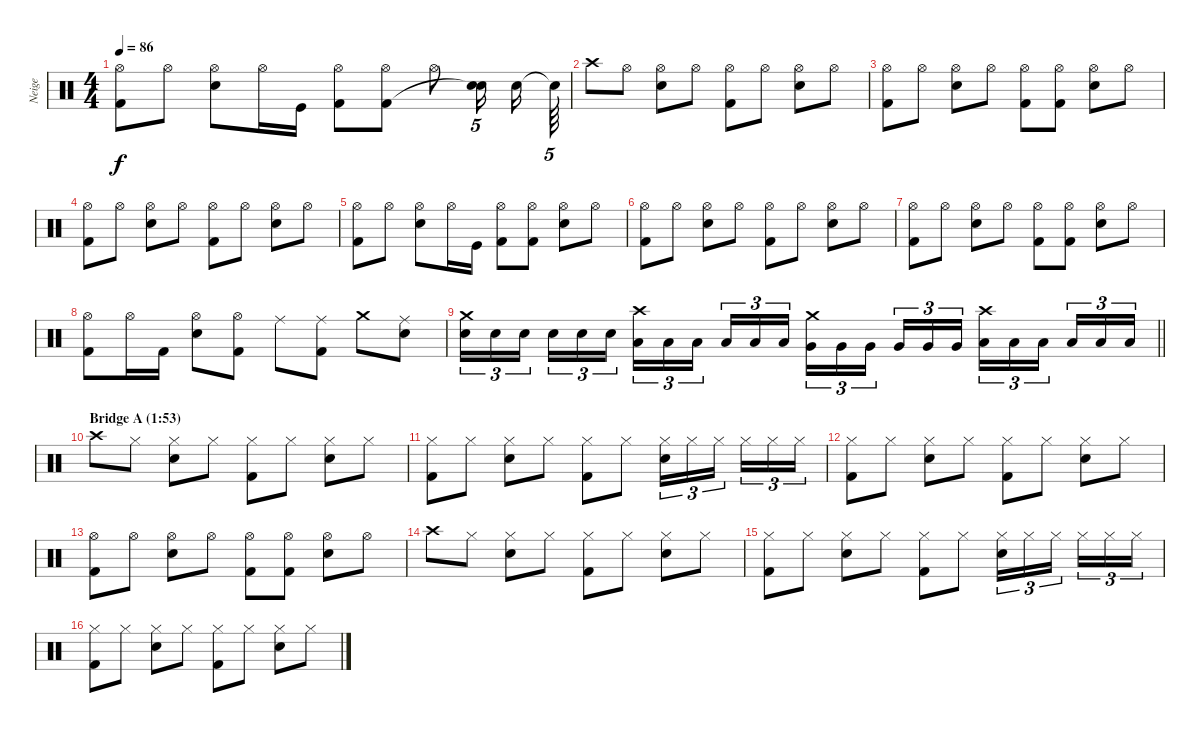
\track ("Neige" "Neige") {instrument percussion}
\staff {score}
\articulation defaults
\ts (4 4)
\tempo 86
\clef neutral
\ks c
("Hi-Hat (open)" "Kick (hit) 2").8{dy f} "Hi-Hat (open)".8 ("Snare (hit) 2" "Hi-Hat (open)").8 "Hi-Hat (open)".16 "Kick (hit)".16 ("Hi-Hat (open)" "Kick (hit) 2").8 ("Hi-Hat (open)" "Kick (hit) 2").8 "Hi-Hat (open)".8 ("Snare (hit) 2" "Snare (hit)"{t}).16{tu (5 4) beam splitsecondary} "Snare (hit) 2".16 "Snare (hit)"{t}.64{tu (5 4)} |
"Crash high (hit)".8 "Hi-Hat (open)".8 ("Snare (hit) 2" "Hi-Hat (open)").8 "Hi-Hat (open)".8 ("Hi-Hat (open)" "Kick (hit) 2").8 "Hi-Hat (open)".8 ("Snare (hit) 2" "Hi-Hat (open)").8 "Hi-Hat (open)".8 |
("Hi-Hat (open)" "Kick (hit) 2").8 "Hi-Hat (open)".8 ("Snare (hit) 2" "Hi-Hat (open)").8 "Hi-Hat (open)".8 ("Hi-Hat (open)" "Kick (hit) 2").8 ("Hi-Hat (open)" "Kick (hit) 2").8 ("Snare (hit) 2" "Hi-Hat (open)").8 "Hi-Hat (open)".8 |
("Hi-Hat (open)" "Kick (hit) 2").8 "Hi-Hat (open)".8 ("Snare (hit) 2" "Hi-Hat (open)").8 "Hi-Hat (open)".8 ("Hi-Hat (open)" "Kick (hit) 2").8 "Hi-Hat (open)".8 ("Snare (hit) 2" "Hi-Hat (open)").8 "Hi-Hat (open)".8 |
("Hi-Hat (open)" "Kick (hit) 2").8 "Hi-Hat (open)".8 ("Snare (hit) 2" "Hi-Hat (open)").8 "Hi-Hat (open)".16 "Kick (hit)".16 ("Hi-Hat (open)" "Kick (hit) 2").8 ("Hi-Hat (open)" "Kick (hit) 2").8 ("Snare (hit) 2" "Hi-Hat (open)").8 "Hi-Hat (open)".8 |
("Hi-Hat (open)" "Kick (hit) 2").8 "Hi-Hat (open)".8 ("Snare (hit) 2" "Hi-Hat (open)").8 "Hi-Hat (open)".8 ("Hi-Hat (open)" "Kick (hit) 2").8 "Hi-Hat (open)".8 ("Snare (hit) 2" "Hi-Hat (open)").8 "Hi-Hat (open)".8 |
("Hi-Hat (open)" "Kick (hit) 2").8 "Hi-Hat (open)".8 ("Snare (hit) 2" "Hi-Hat (open)").8 "Hi-Hat (open)".8 ("Hi-Hat (open)" "Kick (hit) 2").8 ("Hi-Hat (open)" "Kick (hit) 2").8 ("Snare (hit) 2" "Hi-Hat (open)").8 "Hi-Hat (open)".8 |
("Hi-Hat (open)" "Kick (hit) 2").8 "Hi-Hat (open)".16 "Kick (hit) 2".16 ("Snare (hit) 2" "Hi-Hat (open)").8 ("Hi-Hat (open)" "Kick (hit) 2").8 "Ride (middle)".8 ("Ride (middle)" "Kick (hit) 2").8 "Crash medium (hit)".8 ("Snare (hit) 2" "Ride (middle)").8 |
\barLineRight lightlight
("Snare (hit) 2" "Crash medium (hit)").16{tu (3 2)} "Snare (hit) 2".16{tu (3 2)} "Snare (hit) 2".16{tu (3 2) beam splitsecondary} "Snare (hit) 2".16{tu (3 2)} "Snare (hit) 2".16{tu (3 2)} "Snare (hit) 2".16{tu (3 2)} ("Low Tom (hit)" "Crash high (hit)").16{tu (3 2)} "Low Tom (hit)".16{tu (3 2)} "Low Tom (hit)".16{tu (3 2) beam splitsecondary} "Low Tom (hit)".16{tu (3 2)} "Low Tom (hit)".16{tu (3 2)} "Low Tom (hit)".16{tu (3 2)} ("Very Low Tom (hit)" "Crash medium (hit)").16{tu (3 2)} "Very Low Tom (hit)".16{tu (3 2)} "Very Low Tom (hit)".16{tu (3 2) beam splitsecondary} "Very Low Tom (hit)".16{tu (3 2)} "Very Low Tom (hit)".16{tu (3 2)} "Very Low Tom (hit)".16{tu (3 2)} ("Low Floor Tom (hit)" "Crash high (hit)").16{tu (3 2)} "Low Floor Tom (hit)".16{tu (3 2)} "Low Floor Tom (hit)".16{tu (3 2) beam splitsecondary} "Low Floor Tom (hit)".16{tu (3 2)} "Low Floor Tom (hit)".16{tu (3 2)} "Low Floor Tom (hit)".16{tu (3 2)} |
\section ("" "Bridge A (1:53)")
"Crash high (hit)".8 "Hi-Hat (closed)".8 ("Snare (hit) 2" "Hi-Hat (closed)").8 "Hi-Hat (closed)".8 ("Hi-Hat (closed)" "Kick (hit) 2").8 "Hi-Hat (closed)".8 ("Snare (hit) 2" "Hi-Hat (closed)").8 "Hi-Hat (closed)".8 |
("Hi-Hat (closed)" "Kick (hit) 2").8 "Hi-Hat (closed)".8 ("Snare (hit) 2" "Hi-Hat (closed)").8 "Hi-Hat (closed)".8 ("Hi-Hat (closed)" "Kick (hit) 2").8 "Hi-Hat (closed)".8 ("Snare (hit) 2" "Hi-Hat (closed)").16{tu (3 2)} "Hi-Hat (closed)".16{tu (3 2)} "Hi-Hat (closed)".16{tu (3 2) beam splitsecondary} "Hi-Hat (closed)".16{tu (3 2)} "Hi-Hat (closed)".16{tu (3 2)} "Hi-Hat (closed)".16{tu (3 2)} |
("Hi-Hat (closed)" "Kick (hit) 2").8 "Hi-Hat (closed)".8 ("Snare (hit) 2" "Hi-Hat (closed)").8 "Hi-Hat (closed)".8 ("Hi-Hat (closed)" "Kick (hit) 2").8 "Hi-Hat (closed)".8 ("Snare (hit) 2" "Hi-Hat (closed)").8 "Hi-Hat (closed)".8 |
("Hi-Hat (open)" "Kick (hit) 2").8 "Hi-Hat (open)".8 ("Snare (hit) 2" "Hi-Hat (open)").8 "Hi-Hat (open)".8 ("Hi-Hat (open)" "Kick (hit) 2").8 ("Hi-Hat (open)" "Kick (hit) 2").8 ("Snare (hit) 2" "Hi-Hat (open)").8 "Hi-Hat (open)".8 |
"Crash high (hit)".8 "Hi-Hat (closed)".8 ("Snare (hit) 2" "Hi-Hat (closed)").8 "Hi-Hat (closed)".8 ("Hi-Hat (closed)" "Kick (hit) 2").8 "Hi-Hat (closed)".8 ("Snare (hit) 2" "Hi-Hat (closed)").8 "Hi-Hat (closed)".8 |
("Hi-Hat (closed)" "Kick (hit) 2").8 "Hi-Hat (closed)".8 ("Snare (hit) 2" "Hi-Hat (closed)").8 "Hi-Hat (closed)".8 ("Hi-Hat (closed)" "Kick (hit) 2").8 "Hi-Hat (closed)".8 ("Snare (hit) 2" "Hi-Hat (closed)").16{tu (3 2)} "Hi-Hat (closed)".16{tu (3 2)} "Hi-Hat (closed)".16{tu (3 2) beam splitsecondary} "Hi-Hat (closed)".16{tu (3 2)} "Hi-Hat (closed)".16{tu (3 2)} "Hi-Hat (closed)".16{tu (3 2)} |
("Hi-Hat (closed)" "Kick (hit) 2").8 "Hi-Hat (closed)".8 ("Snare (hit) 2" "Hi-Hat (closed)").8 "Hi-Hat (closed)".8 ("Hi-Hat (closed)" "Kick (hit) 2").8 "Hi-Hat (closed)".8 ("Snare (hit) 2" "Hi-Hat (closed)").8 "Hi-Hat (closed)".8
